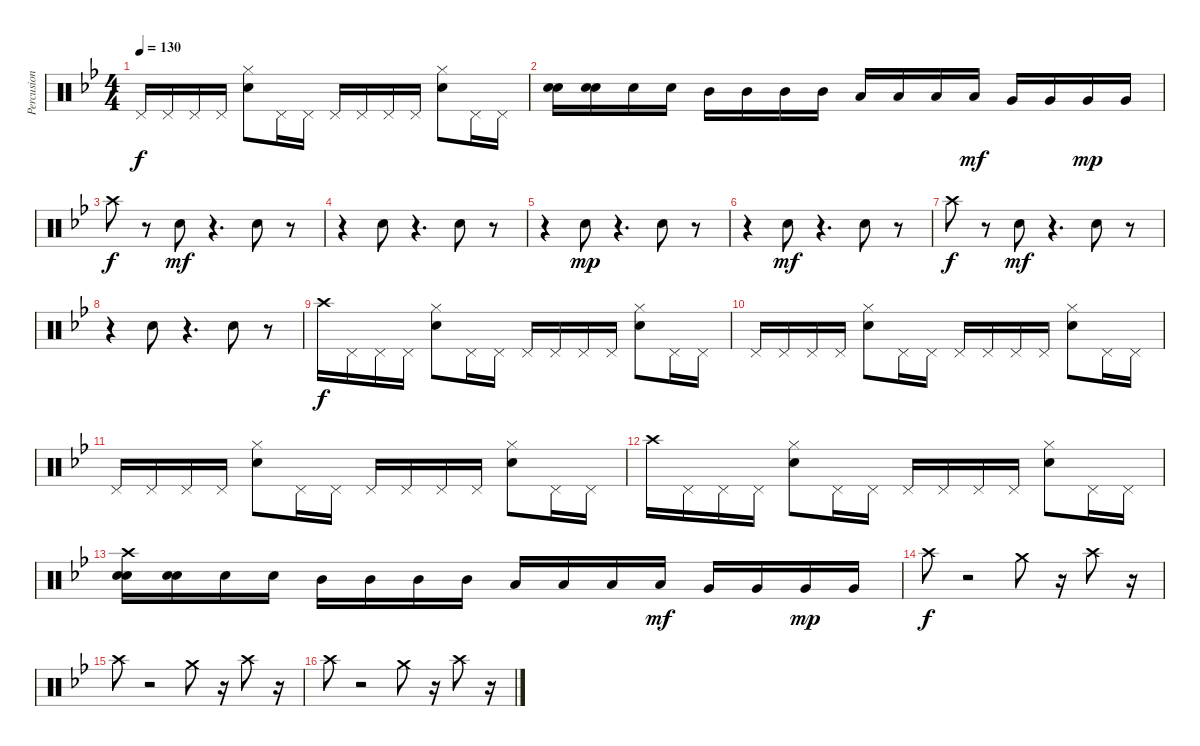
\track ("Percusion I" "Percusion ") {instrument percussion}
\staff {score}
\articulation defaults
\ts (4 4)
\tempo 130
\clef neutral
\ks gminor "Pedal Hi-Hat (hit)".16{dy f} "Pedal Hi-Hat (hit)".16 "Pedal Hi-Hat (hit)".16 "Pedal Hi-Hat (hit)".16
("Hi-Hat (closed)" "Snare (hit) 2").8 "Pedal Hi-Hat (hit)".16 "Pedal Hi-Hat (hit)".16 "Pedal Hi-Hat (hit)".16 "Pedal Hi-Hat (hit)".16 "Pedal Hi-Hat (hit)".16 "Pedal Hi-Hat (hit)".16 ("Snare (hit) 2" "Hi-Hat (closed)").8 "Pedal Hi-Hat (hit)".16 "Pedal Hi-Hat (hit)".16 |
("Snare (hit) 2" "Snare (hit) 2").16 ("Snare (hit) 2" "Snare (hit) 2").16 "Snare (hit) 2".16 "Snare (hit) 2".16 "Mid Tom (hit)".16 "Mid Tom (hit)".16 "Mid Tom (hit)".16 "Mid Tom (hit)".16 "Low Tom (hit)".16 "Low Tom (hit)".16 "Low Tom (hit)".16 "Low Tom (hit)".16{dy mf} "Very Low Tom (hit)".16 "Very Low Tom (hit)".16 "Very Low Tom (hit)".16{dy mp} "Very Low Tom (hit)".16 |
"Crash high (hit)".8{dy f} r.8 "Snare (hit) 2".8{dy mf} r.4{d} "Snare (hit) 2".8 r.8 |
r.4 "Snare (hit) 2".8 r.4{d} "Snare (hit) 2".8 r.8 |
r.4 "Snare (hit) 2".8{dy mp} r.4{d} "Snare (hit) 2".8 r.8 |
r.4 "Snare (hit) 2".8{dy mf} r.4{d} "Snare (hit) 2".8 r.8 |
"Crash high (hit)".8{dy f} r.8 "Snare (hit) 2".8{dy mf} r.4{d} "Snare (hit) 2".8 r.8 |
r.4 "Snare (hit) 2".8 r.4{d} "Snare (hit) 2".8 r.8 |
"Crash high (hit)".16{dy f} "Pedal Hi-Hat (hit)".16 "Pedal Hi-Hat (hit)".16 "Pedal Hi-Hat (hit)".16 ("Snare (hit) 2" "Hi-Hat (closed)").8 "Pedal Hi-Hat (hit)".16 "Pedal Hi-Hat (hit)".16 "Pedal Hi-Hat (hit)".16 "Pedal Hi-Hat (hit)".16 "Pedal Hi-Hat (hit)".16 "Pedal Hi-Hat (hit)".16 ("Snare (hit) 2" "Hi-Hat (closed)").8 "Pedal Hi-Hat (hit)".16 "Pedal Hi-Hat (hit)".16 |
"Pedal Hi-Hat (hit)".16 "Pedal Hi-Hat (hit)".16 "Pedal Hi-Hat (hit)".16 "Pedal Hi-Hat (hit)".16 ("Snare (hit) 2" "Hi-Hat (closed)").8 "Pedal Hi-Hat (hit)".16 "Pedal Hi-Hat (hit)".16 "Pedal Hi-Hat (hit)".16 "Pedal Hi-Hat (hit)".16 "Pedal Hi-Hat (hit)".16 "Pedal Hi-Hat (hit)".16 ("Snare (hit) 2" "Hi-Hat (closed)").8 "Pedal Hi-Hat (hit)".16 "Pedal Hi-Hat (hit)".16 |
"Pedal Hi-Hat (hit)".16 "Pedal Hi-Hat (hit)".16 "Pedal Hi-Hat (hit)".16 "Pedal Hi-Hat (hit)".16 ("Snare (hit) 2" "Hi-Hat (closed)").8 "Pedal Hi-Hat (hit)".16 "Pedal Hi-Hat (hit)".16 "Pedal Hi-Hat (hit)".16 "Pedal Hi-Hat (hit)".16 "Pedal Hi-Hat (hit)".16 "Pedal Hi-Hat (hit)".16 ("Snare (hit) 2" "Hi-Hat (closed)").8 "Pedal Hi-Hat (hit)".16 "Pedal Hi-Hat (hit)".16 |
"Crash high (hit)".16 "Pedal Hi-Hat (hit)".16 "Pedal Hi-Hat (hit)".16 "Pedal Hi-Hat (hit)".16 ("Snare (hit) 2" "Hi-Hat (closed)").8 "Pedal Hi-Hat (hit)".16 "Pedal Hi-Hat (hit)".16 "Pedal Hi-Hat (hit)".16 "Pedal Hi-Hat (hit)".16 "Pedal Hi-Hat (hit)".16 "Pedal Hi-Hat (hit)".16 ("Hi-Hat (closed)" "Snare (hit) 2").8 "Pedal Hi-Hat (hit)".16 "Pedal Hi-Hat (hit)".16 |
("Snare (hit) 2" "Crash high (hit)" "Snare (hit) 2").16 ("Snare (hit) 2" "Snare (hit) 2").16 "Snare (hit) 2".16 "Snare (hit) 2".16 "Mid Tom (hit)".16 "Mid Tom (hit)".16 "Mid Tom (hit)".16 "Mid Tom (hit)".16 "Low Tom (hit)".16 "Low Tom (hit)".16 "Low Tom (hit)".16 "Low Tom (hit)".16{dy mf} "Very Low Tom (hit)".16 "Very Low Tom (hit)".16 "Very Low Tom (hit)".16{dy mp} "Very Low Tom (hit)".16 |
"Crash high (hit)".8{dy f} r.2 "Crash medium (hit)".8 r.16 "Crash high (hit)".8 r.16 |
"Crash high (hit)".8 r.2 "Crash medium (hit)".8 r.16 "Crash high (hit)".8 r.16 |
"Crash high (hit)".8 r.2 "Crash medium (hit)".8 r.16 "Crash high (hit)".8 r.16
